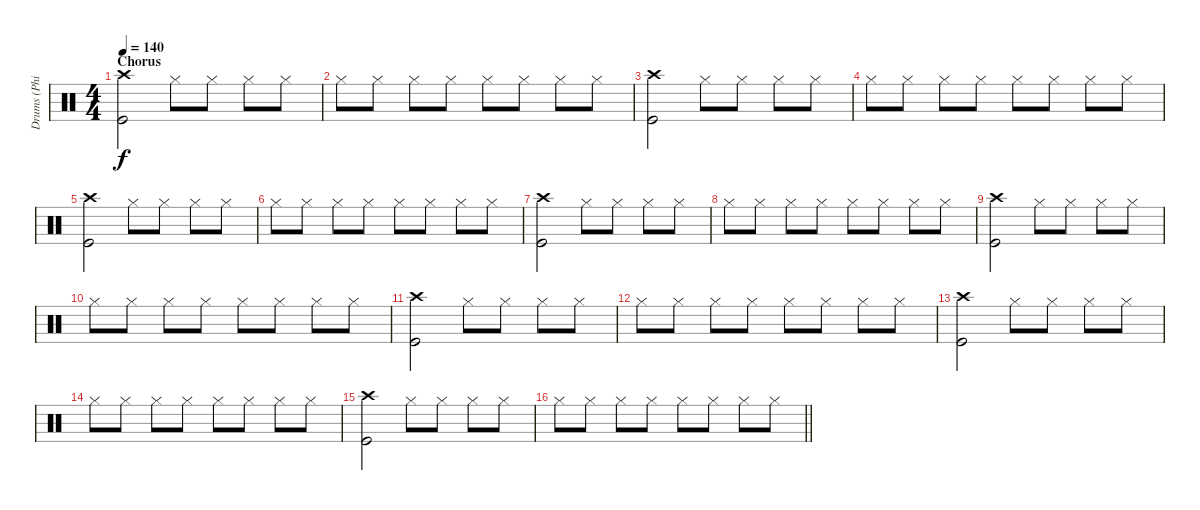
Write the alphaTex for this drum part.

\track ("Drums (Phillip Selway)" "Drums (Phi") {instrument percussion}
\staff {score}
\articulation defaults
\ts (4 4)
\section ("" "Chorus")
\tempo 140
\clef neutral
\ks c
("Crash high (hit)" "Kick (hit)").2{dy f} "Hi-Hat (closed)".8 "Hi-Hat (closed)".8 "Hi-Hat (closed)".8 "Hi-Hat (closed)".8 |
"Hi-Hat (closed)".8 "Hi-Hat (closed)".8 "Hi-Hat (closed)".8 "Hi-Hat (closed)".8 "Hi-Hat (closed)".8 "Hi-Hat (closed)".8 "Hi-Hat (closed)".8 "Hi-Hat (closed)".8 |
("Crash high (hit)" "Kick (hit)").2 "Hi-Hat (closed)".8 "Hi-Hat (closed)".8 "Hi-Hat (closed)".8 "Hi-Hat (closed)".8 |
"Hi-Hat (closed)".8 "Hi-Hat (closed)".8 "Hi-Hat (closed)".8 "Hi-Hat (closed)".8 "Hi-Hat (closed)".8 "Hi-Hat (closed)".8 "Hi-Hat (closed)".8 "Hi-Hat (closed)".8 |
("Crash high (hit)" "Kick (hit)").2 "Hi-Hat (closed)".8 "Hi-Hat (closed)".8 "Hi-Hat (closed)".8 "Hi-Hat (closed)".8 |
"Hi-Hat (closed)".8 "Hi-Hat (closed)".8 "Hi-Hat (closed)".8 "Hi-Hat (closed)".8 "Hi-Hat (closed)".8 "Hi-Hat (closed)".8 "Hi-Hat (closed)".8 "Hi-Hat (closed)".8 |
("Crash high (hit)" "Kick (hit)").2 "Hi-Hat (closed)".8 "Hi-Hat (closed)".8 "Hi-Hat (closed)".8 "Hi-Hat (closed)".8 |
"Hi-Hat (closed)".8 "Hi-Hat (closed)".8 "Hi-Hat (closed)".8 "Hi-Hat (closed)".8 "Hi-Hat (closed)".8 "Hi-Hat (closed)".8 "Hi-Hat (closed)".8 "Hi-Hat (closed)".8 |
("Crash high (hit)" "Kick (hit)").2 "Hi-Hat (closed)".8 "Hi-Hat (closed)".8 "Hi-Hat (closed)".8 "Hi-Hat (closed)".8 |
"Hi-Hat (closed)".8 "Hi-Hat (closed)".8 "Hi-Hat (closed)".8 "Hi-Hat (closed)".8 "Hi-Hat (closed)".8 "Hi-Hat (closed)".8 "Hi-Hat (closed)".8 "Hi-Hat (closed)".8 |
("Crash high (hit)" "Kick (hit)").2 "Hi-Hat (closed)".8 "Hi-Hat (closed)".8 "Hi-Hat (closed)".8 "Hi-Hat (closed)".8 |
"Hi-Hat (closed)".8 "Hi-Hat (closed)".8 "Hi-Hat (closed)".8 "Hi-Hat (closed)".8 "Hi-Hat (closed)".8 "Hi-Hat (closed)".8 "Hi-Hat (closed)".8 "Hi-Hat (closed)".8 |
("Crash high (hit)" "Kick (hit)").2 "Hi-Hat (closed)".8 "Hi-Hat (closed)".8 "Hi-Hat (closed)".8 "Hi-Hat (closed)".8 |
"Hi-Hat (closed)".8 "Hi-Hat (closed)".8 "Hi-Hat (closed)".8 "Hi-Hat (closed)".8 "Hi-Hat (closed)".8 "Hi-Hat (closed)".8 "Hi-Hat (closed)".8 "Hi-Hat (closed)".8 |
("Crash high (hit)" "Kick (hit)").2 "Hi-Hat (closed)".8 "Hi-Hat (closed)".8 "Hi-Hat (closed)".8 "Hi-Hat (closed)".8 |
\barLineRight lightlight "Hi-Hat (closed)".8 "Hi-Hat (closed)".8 "Hi-Hat (closed)".8 "Hi-Hat (closed)".8 "Hi-Hat (closed)".8 "Hi-Hat (closed)".8 "Hi-Hat (closed)".8 "Hi-Hat (closed)".8
